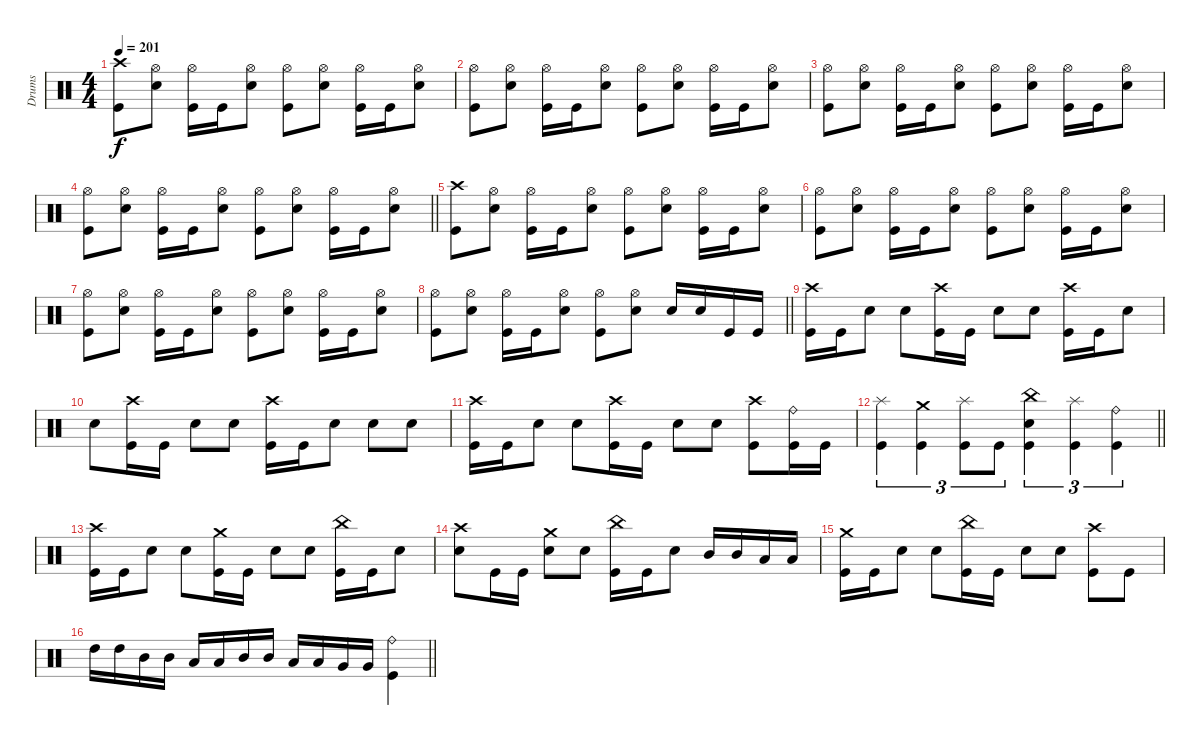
\track ("Drums" "Drums") {instrument percussion}
\staff
\articulation defaults
\ts (4 4)
\tempo 201
\clef neutral
\ks c
("Crash high (hit)" "Kick (hit)").8{dy f} ("Hi-Hat (open)" "Electric Snare (hit)").8 ("Hi-Hat (open)" "Kick (hit)").16 "Kick (hit)".16 ("Hi-Hat (open)" "Electric Snare (hit)").8 ("Hi-Hat (open)" "Kick (hit)").8 ("Hi-Hat (open)" "Electric Snare (hit)").8 ("Hi-Hat (open)" "Kick (hit)").16 "Kick (hit)".16 ("Hi-Hat (open)" "Electric Snare (hit)").8 |
("Hi-Hat (open)" "Kick (hit)").8 ("Hi-Hat (open)" "Electric Snare (hit)").8 ("Hi-Hat (open)" "Kick (hit)").16 "Kick (hit)".16 ("Hi-Hat (open)" "Electric Snare (hit)").8 ("Hi-Hat (open)" "Kick (hit)").8 ("Hi-Hat (open)" "Electric Snare (hit)").8 ("Hi-Hat (open)" "Kick (hit)").16 "Kick (hit)".16 ("Hi-Hat (open)" "Electric Snare (hit)").8 |
("Hi-Hat (open)" "Kick (hit)").8 ("Hi-Hat (open)" "Electric Snare (hit)").8 ("Hi-Hat (open)" "Kick (hit)").16 "Kick (hit)".16 ("Hi-Hat (open)" "Electric Snare (hit)").8 ("Hi-Hat (open)" "Kick (hit)").8 ("Hi-Hat (open)" "Electric Snare (hit)").8 ("Hi-Hat (open)" "Kick (hit)").16 "Kick (hit)".16 ("Hi-Hat (open)" "Electric Snare (hit)").8 |
\barLineRight lightlight
("Hi-Hat (open)" "Kick (hit)").8 ("Hi-Hat (open)" "Electric Snare (hit)").8 ("Hi-Hat (open)" "Kick (hit)").16 "Kick (hit)".16 ("Hi-Hat (open)" "Electric Snare (hit)").8 ("Hi-Hat (open)" "Kick (hit)").8 ("Hi-Hat (open)" "Electric Snare (hit)").8 ("Hi-Hat (open)" "Kick (hit)").16 "Kick (hit)".16 ("Hi-Hat (open)" "Electric Snare (hit)").8 |
("Crash high (hit)" "Kick (hit)").8 ("Hi-Hat (open)" "Electric Snare (hit)").8 ("Hi-Hat (open)" "Kick (hit)").16 "Kick (hit)".16 ("Hi-Hat (open)" "Electric Snare (hit)").8 ("Hi-Hat (open)" "Kick (hit)").8 ("Hi-Hat (open)" "Electric Snare (hit)").8 ("Hi-Hat (open)" "Kick (hit)").16 "Kick (hit)".16 ("Hi-Hat (open)" "Electric Snare (hit)").8 |
("Hi-Hat (open)" "Kick (hit)").8 ("Hi-Hat (open)" "Electric Snare (hit)").8 ("Hi-Hat (open)" "Kick (hit)").16 "Kick (hit)".16 ("Hi-Hat (open)" "Electric Snare (hit)").8 ("Hi-Hat (open)" "Kick (hit)").8 ("Hi-Hat (open)" "Electric Snare (hit)").8 ("Hi-Hat (open)" "Kick (hit)").16 "Kick (hit)".16 ("Hi-Hat (open)" "Electric Snare (hit)").8 |
("Hi-Hat (open)" "Kick (hit)").8 ("Hi-Hat (open)" "Electric Snare (hit)").8 ("Hi-Hat (open)" "Kick (hit)").16 "Kick (hit)".16 ("Hi-Hat (open)" "Electric Snare (hit)").8 ("Hi-Hat (open)" "Kick (hit)").8 ("Hi-Hat (open)" "Electric Snare (hit)").8 ("Hi-Hat (open)" "Kick (hit)").16 "Kick (hit)".16 ("Hi-Hat (open)" "Electric Snare (hit)").8 |
\barLineRight lightlight
("Hi-Hat (open)" "Kick (hit)").8 ("Hi-Hat (open)" "Electric Snare (hit)").8 ("Hi-Hat (open)" "Kick (hit)").16 "Kick (hit)".16 ("Hi-Hat (open)" "Electric Snare (hit)").8 ("Hi-Hat (open)" "Kick (hit)").8 ("Hi-Hat (open)" "Electric Snare (hit)").8 "Electric Snare (hit)".16 "Electric Snare (hit)".16 "Kick (hit)".16 "Kick (hit)".16 |
\section ("" "")
("Crash high (hit)" "Kick (hit)").16 "Kick (hit)".16 "Electric Snare (hit)".8 "Electric Snare (hit)".8 ("Crash high (hit)" "Kick (hit)").16 "Kick (hit)".16 "Electric Snare (hit)".8 "Electric Snare (hit)".8 ("Crash high (hit)" "Kick (hit)").16 "Kick (hit)".16 "Electric Snare (hit)".8 |
"Electric Snare (hit)".8 ("Crash high (hit)" "Kick (hit)").16 "Kick (hit)".16 "Electric Snare (hit)".8 "Electric Snare (hit)".8 ("Crash high (hit)" "Kick (hit)").16 "Kick (hit)".16 "Electric Snare (hit)".8 "Electric Snare (hit)".8 "Electric Snare (hit)".8 |
("Crash high (hit)" "Kick (hit)").16 "Kick (hit)".16 "Electric Snare (hit)".8 "Electric Snare (hit)".8 ("Crash high (hit)" "Kick (hit)").16 "Kick (hit)".16 "Electric Snare (hit)".8 "Electric Snare (hit)".8 ("Crash high (hit)" "Kick (hit)").8 ("Ride (bell)" "Kick (hit)").16 "Kick (hit)".16 |
\barLineRight lightlight
("Splash (hit)" "Kick (hit)").4{tu (3 2)} ("Crash medium (hit)" "Kick (hit)").4{tu (3 2)} ("Splash (hit)" "Kick (hit)").8{tu (3 2)} "Kick (hit)".8{tu (3 2)} ("China (hit)" "Electric Snare (hit)" "Kick (hit)").4{tu (3 2)} ("Splash (hit)" "Kick (hit)").4{tu (3 2)} ("Ride (bell)" "Kick (hit)").4{tu (3 2)} |
("Crash high (hit)" "Kick (hit)").16 "Kick (hit)".16 "Electric Snare (hit)".8 "Electric Snare (hit)".8 ("Crash medium (hit)" "Kick (hit)").16 "Kick (hit)".16 "Electric Snare (hit)".8 "Electric Snare (hit)".8 ("China (hit)" "Kick (hit)").16 "Kick (hit)".16 "Electric Snare (hit)".8 |
("Crash high (hit)" "Electric Snare (hit)").8 "Kick (hit)".16 "Kick (hit)".16 ("Crash medium (hit)" "Electric Snare (hit)").8 "Electric Snare (hit)".8 ("China (hit)" "Kick (hit)").16 "Kick (hit)".16 "Electric Snare (hit)".8 "Mid Tom (hit)".16 "Mid Tom (hit)".16 "Low Tom (hit)".16 "Low Tom (hit)".16 |
("Crash medium (hit)" "Kick (hit)").16 "Kick (hit)".16 "Electric Snare (hit)".8 "Electric Snare (hit)".8 ("China (hit)" "Kick (hit)").16 "Kick (hit)".16 "Electric Snare (hit)".8 "Electric Snare (hit)".8 ("Crash high (hit)" "Kick (hit)").8 "Kick (hit)".8 |
\barLineRight lightlight "High Tom (hit)".16 "High Tom (hit)".16 "Mid Tom (hit)".16 "Mid Tom (hit)".16 "Low Tom (hit)".16 "Low Tom (hit)".16 "Mid Tom (hit)".16 "Mid Tom (hit)".16 "Low Tom (hit)".16 "Low Tom (hit)".16 "Very Low Tom (hit)".16 "Very Low Tom (hit)".16
("Ride (bell)" "Kick (hit)").4
